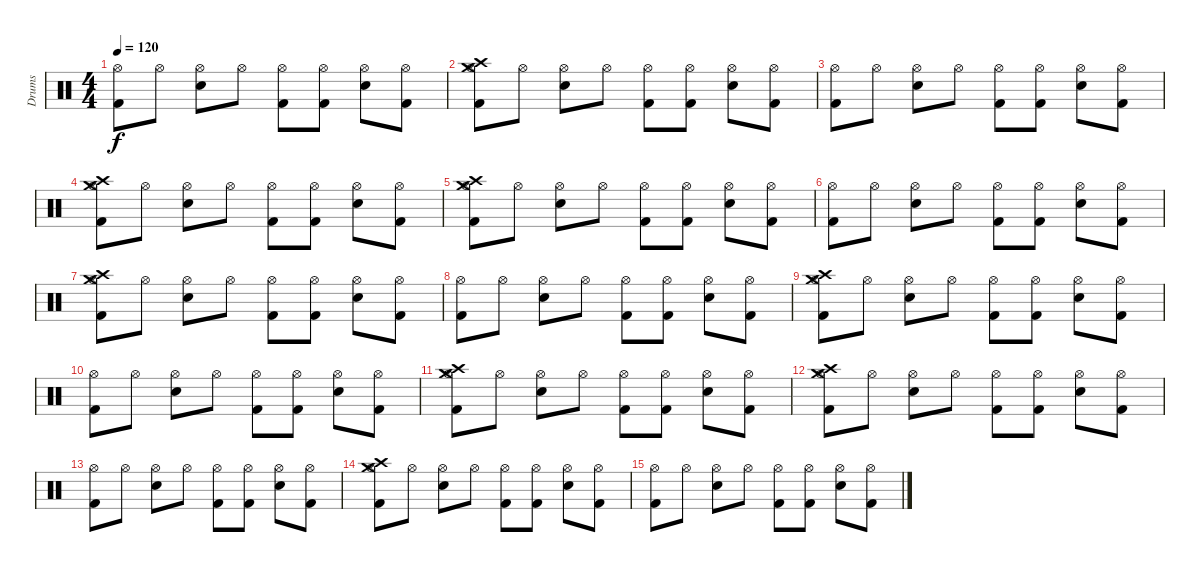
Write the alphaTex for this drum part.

\track ("Drums" "Drums") {instrument percussion}
\staff {score}
\articulation defaults
\ts (4 4)
\tempo 120
\clef neutral
\ks c
("Kick (hit) 2" "Hi-Hat (open)").8{dy f} "Hi-Hat (open)".8 ("Snare (hit) 2" "Hi-Hat (open)").8 "Hi-Hat (open)".8 ("Kick (hit) 2" "Hi-Hat (open)").8 ("Kick (hit) 2" "Hi-Hat (open)").8 ("Snare (hit) 2" "Hi-Hat (open)").8 ("Kick (hit) 2" "Hi-Hat (open)").8 |
("Crash high (hit)" "Crash medium (hit)" "Kick (hit) 2" "Hi-Hat (open)").8 "Hi-Hat (open)".8 ("Snare (hit) 2" "Hi-Hat (open)").8 "Hi-Hat (open)".8 ("Kick (hit) 2" "Hi-Hat (open)").8 ("Kick (hit) 2" "Hi-Hat (open)").8 ("Snare (hit) 2" "Hi-Hat (open)").8 ("Kick (hit) 2" "Hi-Hat (open)").8 |
("Kick (hit) 2" "Hi-Hat (open)").8 "Hi-Hat (open)".8 ("Snare (hit) 2" "Hi-Hat (open)").8 "Hi-Hat (open)".8 ("Kick (hit) 2" "Hi-Hat (open)").8 ("Kick (hit) 2" "Hi-Hat (open)").8 ("Snare (hit) 2" "Hi-Hat (open)").8 ("Kick (hit) 2" "Hi-Hat (open)").8 |
("Crash high (hit)" "Crash medium (hit)" "Kick (hit) 2" "Hi-Hat (open)").8 "Hi-Hat (open)".8 ("Snare (hit) 2" "Hi-Hat (open)").8 "Hi-Hat (open)".8 ("Kick (hit) 2" "Hi-Hat (open)").8 ("Kick (hit) 2" "Hi-Hat (open)").8 ("Snare (hit) 2" "Hi-Hat (open)").8 ("Kick (hit) 2" "Hi-Hat (open)").8 |
("Crash high (hit)" "Crash medium (hit)" "Kick (hit) 2" "Hi-Hat (open)").8 "Hi-Hat (open)".8 ("Snare (hit) 2" "Hi-Hat (open)").8 "Hi-Hat (open)".8 ("Kick (hit) 2" "Hi-Hat (open)").8 ("Kick (hit) 2" "Hi-Hat (open)").8 ("Snare (hit) 2" "Hi-Hat (open)").8 ("Kick (hit) 2" "Hi-Hat (open)").8 |
("Kick (hit) 2" "Hi-Hat (open)").8 "Hi-Hat (open)".8 ("Snare (hit) 2" "Hi-Hat (open)").8 "Hi-Hat (open)".8 ("Kick (hit) 2" "Hi-Hat (open)").8 ("Kick (hit) 2" "Hi-Hat (open)").8 ("Snare (hit) 2" "Hi-Hat (open)").8 ("Kick (hit) 2" "Hi-Hat (open)").8 |
("Crash high (hit)" "Crash medium (hit)" "Kick (hit) 2" "Hi-Hat (open)").8 "Hi-Hat (open)".8 ("Snare (hit) 2" "Hi-Hat (open)").8 "Hi-Hat (open)".8 ("Kick (hit) 2" "Hi-Hat (open)").8 ("Kick (hit) 2" "Hi-Hat (open)").8 ("Snare (hit) 2" "Hi-Hat (open)").8 ("Kick (hit) 2" "Hi-Hat (open)").8 |
("Kick (hit) 2" "Hi-Hat (open)").8 "Hi-Hat (open)".8 ("Snare (hit) 2" "Hi-Hat (open)").8 "Hi-Hat (open)".8 ("Kick (hit) 2" "Hi-Hat (open)").8 ("Kick (hit) 2" "Hi-Hat (open)").8 ("Snare (hit) 2" "Hi-Hat (open)").8 ("Kick (hit) 2" "Hi-Hat (open)").8 |
("Crash high (hit)" "Crash medium (hit)" "Kick (hit) 2" "Hi-Hat (open)").8 "Hi-Hat (open)".8 ("Snare (hit) 2" "Hi-Hat (open)").8 "Hi-Hat (open)".8 ("Kick (hit) 2" "Hi-Hat (open)").8 ("Kick (hit) 2" "Hi-Hat (open)").8 ("Snare (hit) 2" "Hi-Hat (open)").8 ("Kick (hit) 2" "Hi-Hat (open)").8 |
("Kick (hit) 2" "Hi-Hat (open)").8{volume 12} "Hi-Hat (open)".8 ("Snare (hit) 2" "Hi-Hat (open)").8 "Hi-Hat (open)".8 ("Kick (hit) 2" "Hi-Hat (open)").8 ("Kick (hit) 2" "Hi-Hat (open)").8 ("Snare (hit) 2" "Hi-Hat (open)").8 ("Kick (hit) 2" "Hi-Hat (open)").8 |
("Crash high (hit)" "Crash medium (hit)" "Kick (hit) 2" "Hi-Hat (open)").8{volume 11} "Hi-Hat (open)".8 ("Snare (hit) 2" "Hi-Hat (open)").8 "Hi-Hat (open)".8 ("Kick (hit) 2" "Hi-Hat (open)").8 ("Kick (hit) 2" "Hi-Hat (open)").8 ("Snare (hit) 2" "Hi-Hat (open)").8 ("Kick (hit) 2" "Hi-Hat (open)").8 |
("Crash high (hit)" "Crash medium (hit)" "Kick (hit) 2" "Hi-Hat (open)").8 "Hi-Hat (open)".8{volume 10} ("Snare (hit) 2" "Hi-Hat (open)").8 "Hi-Hat (open)".8 ("Kick (hit) 2" "Hi-Hat (open)").8 ("Kick (hit) 2" "Hi-Hat (open)").8 ("Snare (hit) 2" "Hi-Hat (open)").8 ("Kick (hit) 2" "Hi-Hat (open)").8 |
("Kick (hit) 2" "Hi-Hat (open)").8{volume 8} "Hi-Hat (open)".8 ("Snare (hit) 2" "Hi-Hat (open)").8 "Hi-Hat (open)".8 ("Kick (hit) 2" "Hi-Hat (open)").8 ("Kick (hit) 2" "Hi-Hat (open)").8 ("Snare (hit) 2" "Hi-Hat (open)").8 ("Kick (hit) 2" "Hi-Hat (open)").8 |
("Crash high (hit)" "Crash medium (hit)" "Kick (hit) 2" "Hi-Hat (open)").8{volume 6} "Hi-Hat (open)".8 ("Snare (hit) 2" "Hi-Hat (open)").8 "Hi-Hat (open)".8 ("Kick (hit) 2" "Hi-Hat (open)").8 ("Kick (hit) 2" "Hi-Hat (open)").8 ("Snare (hit) 2" "Hi-Hat (open)").8 ("Kick (hit) 2" "Hi-Hat (open)").8 |
("Kick (hit) 2" "Hi-Hat (open)").8{volume 3} "Hi-Hat (open)".8 ("Snare (hit) 2" "Hi-Hat (open)").8 "Hi-Hat (open)".8 ("Kick (hit) 2" "Hi-Hat (open)").8 ("Kick (hit) 2" "Hi-Hat (open)").8 ("Snare (hit) 2" "Hi-Hat (open)").8 ("Kick (hit) 2" "Hi-Hat (open)").8
